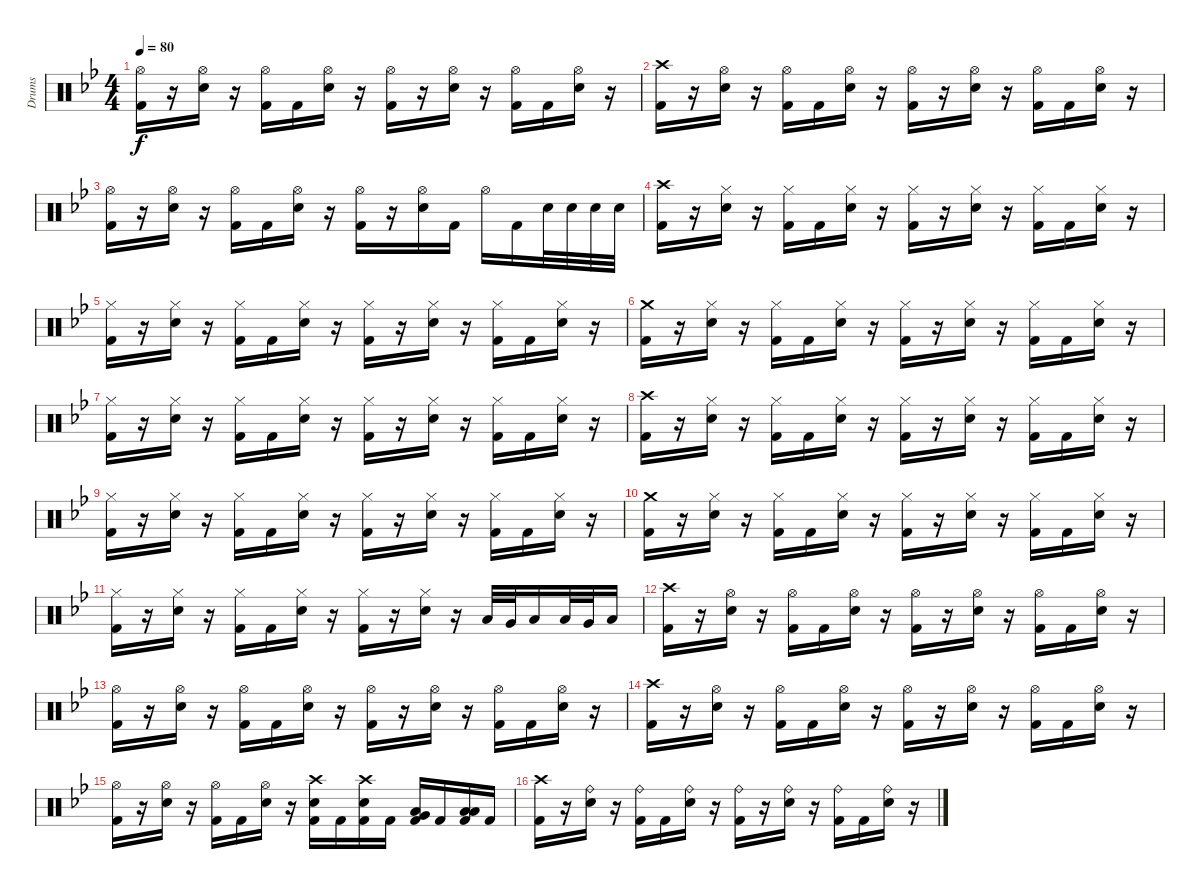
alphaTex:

\track ("Drums" "Drums") {instrument percussion}
\staff {score}
\articulation defaults
\ts (4 4)
\tempo 80
\clef neutral
\ks gminor
("Kick (hit) 2" "Hi-Hat (open)").16{dy f} r.16 ("Electric Snare (hit)" "Hi-Hat (open)").16 r.16 ("Kick (hit) 2" "Hi-Hat (open)").16 "Kick (hit) 2".16 ("Electric Snare (hit)" "Hi-Hat (open)").16 r.16 ("Kick (hit) 2" "Hi-Hat (open)").16 r.16 ("Electric Snare (hit)" "Hi-Hat (open)").16 r.16 ("Kick (hit) 2" "Hi-Hat (open)").16 "Kick (hit) 2".16 ("Electric Snare (hit)" "Hi-Hat (open)").16 r.16 |
("Kick (hit) 2" "Crash high (hit)").16 r.16 ("Electric Snare (hit)" "Hi-Hat (open)").16 r.16 ("Kick (hit) 2" "Hi-Hat (open)").16 "Kick (hit) 2".16 ("Electric Snare (hit)" "Hi-Hat (open)").16 r.16 ("Kick (hit) 2" "Hi-Hat (open)").16 r.16 ("Electric Snare (hit)" "Hi-Hat (open)").16 r.16 ("Kick (hit) 2" "Hi-Hat (open)").16 "Kick (hit) 2".16 ("Electric Snare (hit)" "Hi-Hat (open)").16 r.16 |
("Kick (hit) 2" "Hi-Hat (open)").16 r.16 ("Electric Snare (hit)" "Hi-Hat (open)").16 r.16 ("Kick (hit) 2" "Hi-Hat (open)").16 "Kick (hit) 2".16 ("Electric Snare (hit)" "Hi-Hat (open)").16 r.16 ("Kick (hit) 2" "Hi-Hat (open)").16 r.16 ("Electric Snare (hit)" "Hi-Hat (open)").16 "Kick (hit) 2".16 "Hi-Hat (open)".16 "Kick (hit) 2".16 "Electric Snare (hit)".32 "Snare (hit) 2".32 "Snare (hit) 2".32 "Electric Snare (hit)".32 |
("Kick (hit) 2" "Crash high (hit)").16 r.16 ("Electric Snare (hit)" "Hi-Hat (closed)").16 r.16 ("Kick (hit) 2" "Hi-Hat (closed)").16 "Kick (hit) 2".16 ("Electric Snare (hit)" "Hi-Hat (closed)").16 r.16 ("Kick (hit) 2" "Hi-Hat (closed)").16 r.16 ("Electric Snare (hit)" "Hi-Hat (closed)").16 r.16 ("Kick (hit) 2" "Hi-Hat (closed)").16 "Kick (hit) 2".16 ("Electric Snare (hit)" "Hi-Hat (closed)").16 r.16 |
("Kick (hit) 2" "Hi-Hat (closed)").16 r.16 ("Electric Snare (hit)" "Hi-Hat (closed)").16 r.16 ("Kick (hit) 2" "Hi-Hat (closed)").16 "Kick (hit) 2".16 ("Electric Snare (hit)" "Hi-Hat (closed)").16 r.16 ("Kick (hit) 2" "Hi-Hat (closed)").16 r.16 ("Electric Snare (hit)" "Hi-Hat (closed)").16 r.16 ("Kick (hit) 2" "Hi-Hat (closed)").16 "Kick (hit) 2".16 ("Electric Snare (hit)" "Hi-Hat (closed)").16 r.16 |
("Kick (hit) 2" "Crash medium (hit)").16 r.16 ("Electric Snare (hit)" "Hi-Hat (closed)").16 r.16 ("Kick (hit) 2" "Hi-Hat (closed)").16 "Kick (hit) 2".16 ("Electric Snare (hit)" "Hi-Hat (closed)").16 r.16 ("Kick (hit) 2" "Hi-Hat (closed)").16 r.16 ("Electric Snare (hit)" "Hi-Hat (closed)").16 r.16 ("Kick (hit) 2" "Hi-Hat (closed)").16 "Kick (hit) 2".16 ("Electric Snare (hit)" "Hi-Hat (closed)").16 r.16 |
("Kick (hit) 2" "Hi-Hat (closed)").16 r.16 ("Electric Snare (hit)" "Hi-Hat (closed)").16 r.16 ("Kick (hit) 2" "Hi-Hat (closed)").16 "Kick (hit) 2".16 ("Electric Snare (hit)" "Hi-Hat (closed)").16 r.16 ("Kick (hit) 2" "Hi-Hat (closed)").16 r.16 ("Electric Snare (hit)" "Hi-Hat (closed)").16 r.16 ("Kick (hit) 2" "Hi-Hat (closed)").16 "Kick (hit) 2".16 ("Electric Snare (hit)" "Hi-Hat (closed)").16 r.16 |
("Kick (hit) 2" "Crash high (hit)").16 r.16 ("Electric Snare (hit)" "Hi-Hat (closed)").16 r.16 ("Kick (hit) 2" "Hi-Hat (closed)").16 "Kick (hit) 2".16 ("Electric Snare (hit)" "Hi-Hat (closed)").16 r.16 ("Kick (hit) 2" "Hi-Hat (closed)").16 r.16 ("Electric Snare (hit)" "Hi-Hat (closed)").16 r.16 ("Kick (hit) 2" "Hi-Hat (closed)").16 "Kick (hit) 2".16 ("Electric Snare (hit)" "Hi-Hat (closed)").16 r.16 |
("Kick (hit) 2" "Hi-Hat (closed)").16 r.16 ("Electric Snare (hit)" "Hi-Hat (closed)").16 r.16 ("Kick (hit) 2" "Hi-Hat (closed)").16 "Kick (hit) 2".16 ("Electric Snare (hit)" "Hi-Hat (closed)").16 r.16 ("Kick (hit) 2" "Hi-Hat (closed)").16 r.16 ("Electric Snare (hit)" "Hi-Hat (closed)").16 r.16 ("Kick (hit) 2" "Hi-Hat (closed)").16 "Kick (hit) 2".16 ("Electric Snare (hit)" "Hi-Hat (closed)").16 r.16 |
("Kick (hit) 2" "Crash medium (hit)").16 r.16 ("Electric Snare (hit)" "Hi-Hat (closed)").16 r.16 ("Kick (hit) 2" "Hi-Hat (closed)").16 "Kick (hit) 2".16 ("Electric Snare (hit)" "Hi-Hat (closed)").16 r.16 ("Kick (hit) 2" "Hi-Hat (closed)").16 r.16 ("Electric Snare (hit)" "Hi-Hat (closed)").16 r.16 ("Kick (hit) 2" "Hi-Hat (closed)").16 "Kick (hit) 2".16 ("Electric Snare (hit)" "Hi-Hat (closed)").16 r.16 |
("Kick (hit) 2" "Hi-Hat (closed)").16 r.16 ("Electric Snare (hit)" "Hi-Hat (closed)").16 r.16 ("Kick (hit) 2" "Hi-Hat (closed)").16 "Kick (hit) 2".16 ("Electric Snare (hit)" "Hi-Hat (closed)").16 r.16 ("Kick (hit) 2" "Hi-Hat (closed)").16 r.16 ("Electric Snare (hit)" "Hi-Hat (closed)").16 r.16 "Low Tom (hit)".32 "Very Low Tom (hit)".32 "Low Floor Tom (hit)".16 "Low Tom (hit)".32 "Very Low Tom (hit)".32 "Low Floor Tom (hit)".16 |
("Kick (hit) 2" "Crash high (hit)").16 r.16 ("Electric Snare (hit)" "Hi-Hat (open)").16 r.16 ("Kick (hit) 2" "Hi-Hat (open)").16 "Kick (hit) 2".16 ("Electric Snare (hit)" "Hi-Hat (open)").16 r.16 ("Kick (hit) 2" "Hi-Hat (open)").16 r.16 ("Electric Snare (hit)" "Hi-Hat (open)").16 r.16 ("Kick (hit) 2" "Hi-Hat (open)").16 "Kick (hit) 2".16 ("Electric Snare (hit)" "Hi-Hat (open)").16 r.16 |
("Kick (hit) 2" "Hi-Hat (open)").16 r.16 ("Electric Snare (hit)" "Hi-Hat (open)").16 r.16 ("Kick (hit) 2" "Hi-Hat (open)").16 "Kick (hit) 2".16 ("Electric Snare (hit)" "Hi-Hat (open)").16 r.16 ("Kick (hit) 2" "Hi-Hat (open)").16 r.16 ("Electric Snare (hit)" "Hi-Hat (open)").16 r.16 ("Kick (hit) 2" "Hi-Hat (open)").16 "Kick (hit) 2".16 ("Electric Snare (hit)" "Hi-Hat (open)").16 r.16 |
("Kick (hit) 2" "Crash high (hit)").16 r.16 ("Electric Snare (hit)" "Hi-Hat (open)").16 r.16 ("Kick (hit) 2" "Hi-Hat (open)").16 "Kick (hit) 2".16 ("Electric Snare (hit)" "Hi-Hat (open)").16 r.16 ("Kick (hit) 2" "Hi-Hat (open)").16 r.16 ("Electric Snare (hit)" "Hi-Hat (open)").16 r.16 ("Kick (hit) 2" "Hi-Hat (open)").16 "Kick (hit) 2".16 ("Electric Snare (hit)" "Hi-Hat (open)").16 r.16 |
("Kick (hit) 2" "Hi-Hat (open)").16 r.16 ("Electric Snare (hit)" "Hi-Hat (open)").16 r.16 ("Kick (hit) 2" "Hi-Hat (open)").16 "Kick (hit) 2".16 ("Electric Snare (hit)" "Hi-Hat (open)").16 r.16 ("Kick (hit) 2" "Electric Snare (hit)" "Crash high (hit)").16 "Kick (hit) 2".16 ("Kick (hit) 2" "Electric Snare (hit)" "Crash high (hit)").16 "Kick (hit) 2".16 ("Kick (hit) 2" "Very Low Tom (hit)" "Low Tom (hit)").16 "Kick (hit) 2".16 ("Kick (hit) 2" "Low Floor Tom (hit)" "Low Tom (hit)").16 "Kick (hit) 2".16 |
("Kick (hit) 2" "Crash high (hit)").16 r.16 ("Electric Snare (hit)" "Ride (bell)").16 r.16 ("Kick (hit) 2" "Ride (bell)").16 "Kick (hit) 2".16 ("Electric Snare (hit)" "Ride (bell)").16 r.16 ("Kick (hit) 2" "Ride (bell)").16 r.16 ("Electric Snare (hit)" "Ride (bell)").16 r.16 ("Kick (hit) 2" "Ride (bell)").16 "Kick (hit) 2".16 ("Electric Snare (hit)" "Ride (bell)").16 r.16
